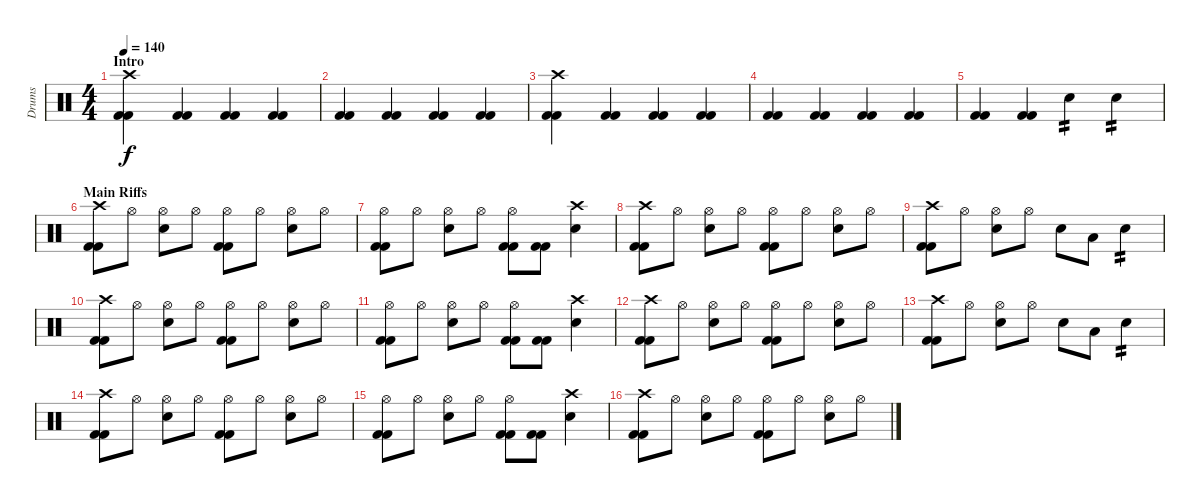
\track ("Drums" "Drums") {instrument percussion}
\staff {score}
\articulation defaults
\ts (4 4)
\section ("" "Intro")
\tempo 140
\clef neutral
\ks c
("Crash high (hit)" "Kick (hit) 2" "Kick (hit) 2").4{dy f} ("Kick (hit) 2" "Kick (hit) 2").4 ("Kick (hit) 2" "Kick (hit) 2").4 ("Kick (hit) 2" "Kick (hit) 2").4 |
("Kick (hit) 2" "Kick (hit) 2").4 ("Kick (hit) 2" "Kick (hit) 2").4 ("Kick (hit) 2" "Kick (hit) 2").4 ("Kick (hit) 2" "Kick (hit) 2").4 |
("Crash high (hit)" "Kick (hit) 2" "Kick (hit) 2").4 ("Kick (hit) 2" "Kick (hit) 2").4 ("Kick (hit) 2" "Kick (hit) 2").4 ("Kick (hit) 2" "Kick (hit) 2").4 |
("Kick (hit) 2" "Kick (hit) 2").4 ("Kick (hit) 2" "Kick (hit) 2").4 ("Kick (hit) 2" "Kick (hit) 2").4 ("Kick (hit) 2" "Kick (hit) 2").4 |
("Kick (hit) 2" "Kick (hit) 2").4 ("Kick (hit) 2" "Kick (hit) 2").4 "Electric Snare (hit)".4{tp 2} "Electric Snare (hit)".4{tp 2} |
\section ("" "Main Riffs")
("Crash high (hit)" "Kick (hit) 2" "Kick (hit) 2").8 "Hi-Hat (open)".8 ("Electric Snare (hit)" "Hi-Hat (open)").8 "Hi-Hat (open)".8 ("Hi-Hat (open)" "Kick (hit) 2" "Kick (hit) 2").8 "Hi-Hat (open)".8 ("Electric Snare (hit)" "Hi-Hat (open)").8 "Hi-Hat (open)".8 |
("Hi-Hat (open)" "Kick (hit) 2" "Kick (hit) 2").8 "Hi-Hat (open)".8 ("Electric Snare (hit)" "Hi-Hat (open)").8 "Hi-Hat (open)".8 ("Hi-Hat (open)" "Kick (hit) 2" "Kick (hit) 2").8 ("Kick (hit) 2" "Kick (hit) 2").8 ("Electric Snare (hit)" "Crash high (hit)").4 |
("Crash high (hit)" "Kick (hit) 2" "Kick (hit) 2").8 "Hi-Hat (open)".8 ("Electric Snare (hit)" "Hi-Hat (open)").8 "Hi-Hat (open)".8 ("Hi-Hat (open)" "Kick (hit) 2" "Kick (hit) 2").8 "Hi-Hat (open)".8 ("Electric Snare (hit)" "Hi-Hat (open)").8 "Hi-Hat (open)".8 |
("Crash high (hit)" "Kick (hit) 2" "Kick (hit) 2").8 "Hi-Hat (open)".8 ("Electric Snare (hit)" "Hi-Hat (open)").8 "Hi-Hat (open)".8 "Electric Snare (hit)".8 "Low Tom (hit)".8 "Electric Snare (hit)".4{tp 2} |
("Crash high (hit)" "Kick (hit) 2" "Kick (hit) 2").8 "Hi-Hat (open)".8 ("Electric Snare (hit)" "Hi-Hat (open)").8 "Hi-Hat (open)".8 ("Hi-Hat (open)" "Kick (hit) 2" "Kick (hit) 2").8 "Hi-Hat (open)".8 ("Electric Snare (hit)" "Hi-Hat (open)").8 "Hi-Hat (open)".8 |
("Hi-Hat (open)" "Kick (hit) 2" "Kick (hit) 2").8 "Hi-Hat (open)".8 ("Electric Snare (hit)" "Hi-Hat (open)").8 "Hi-Hat (open)".8 ("Hi-Hat (open)" "Kick (hit) 2" "Kick (hit) 2").8 ("Kick (hit) 2" "Kick (hit) 2").8 ("Electric Snare (hit)" "Crash high (hit)").4 |
("Crash high (hit)" "Kick (hit) 2" "Kick (hit) 2").8 "Hi-Hat (open)".8 ("Electric Snare (hit)" "Hi-Hat (open)").8 "Hi-Hat (open)".8 ("Hi-Hat (open)" "Kick (hit) 2" "Kick (hit) 2").8 "Hi-Hat (open)".8 ("Electric Snare (hit)" "Hi-Hat (open)").8 "Hi-Hat (open)".8 |
("Crash high (hit)" "Kick (hit) 2" "Kick (hit) 2").8 "Hi-Hat (open)".8 ("Electric Snare (hit)" "Hi-Hat (open)").8 "Hi-Hat (open)".8 "Electric Snare (hit)".8 "Low Tom (hit)".8 "Electric Snare (hit)".4{tp 2} |
("Crash high (hit)" "Kick (hit) 2" "Kick (hit) 2").8 "Hi-Hat (open)".8 ("Electric Snare (hit)" "Hi-Hat (open)").8 "Hi-Hat (open)".8 ("Hi-Hat (open)" "Kick (hit) 2" "Kick (hit) 2").8 "Hi-Hat (open)".8 ("Electric Snare (hit)" "Hi-Hat (open)").8 "Hi-Hat (open)".8 |
("Hi-Hat (open)" "Kick (hit) 2" "Kick (hit) 2").8 "Hi-Hat (open)".8 ("Electric Snare (hit)" "Hi-Hat (open)").8 "Hi-Hat (open)".8 ("Hi-Hat (open)" "Kick (hit) 2" "Kick (hit) 2").8 ("Kick (hit) 2" "Kick (hit) 2").8 ("Electric Snare (hit)" "Crash high (hit)").4 |
("Crash high (hit)" "Kick (hit) 2" "Kick (hit) 2").8 "Hi-Hat (open)".8 ("Electric Snare (hit)" "Hi-Hat (open)").8 "Hi-Hat (open)".8 ("Hi-Hat (open)" "Kick (hit) 2" "Kick (hit) 2").8 "Hi-Hat (open)".8 ("Electric Snare (hit)" "Hi-Hat (open)").8 "Hi-Hat (open)".8
